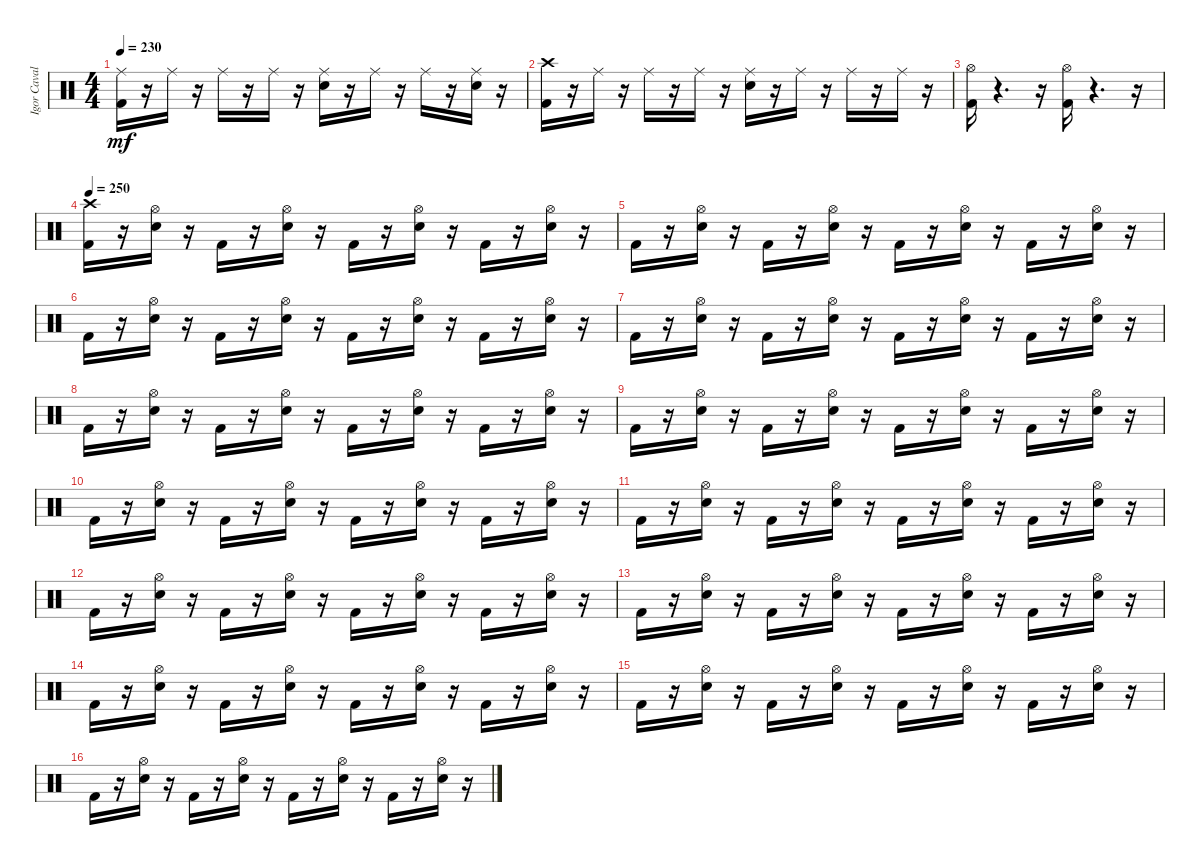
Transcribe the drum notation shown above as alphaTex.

\track ("Igor Cavalera" "Igor Caval") {instrument percussion}
\staff {score}
\articulation defaults
\ts (4 4)
\tempo 230
\clef neutral
\ks c
("Kick (hit) 2" "Ride (middle)").16{dy mf} r.16 "Ride (middle)".16 r.16 "Ride (middle)".16 r.16 "Ride (middle)".16 r.16 ("Snare (hit) 2" "Ride (middle)").16 r.16 "Ride (middle)".16 r.16 "Ride (middle)".16 r.16 ("Snare (hit) 2" "Ride (middle)").16 r.16 |
("Kick (hit) 2" "Crash high (hit)").16 r.16 "Ride (middle)".16 r.16 "Ride (middle)".16 r.16 "Ride (middle)".16 r.16 ("Ride (middle)" "Snare (hit) 2").16 r.16 "Ride (middle)".16 r.16 "Ride (middle)".16 r.16 "Ride (middle)".16 r.16 |
("Kick (hit) 2" "Hi-Hat (open)").16 r.4{d} r.16 ("Kick (hit) 2" "Hi-Hat (open)").16 r.4{d} r.16 |
\tempo 250
("Crash high (hit)" "Kick (hit) 2").16 r.16 ("Snare (hit) 2" "Hi-Hat (open)").16 r.16 "Kick (hit) 2".16 r.16 ("Snare (hit) 2" "Hi-Hat (open)").16 r.16 "Kick (hit) 2".16 r.16 ("Snare (hit) 2" "Hi-Hat (open)").16 r.16 "Kick (hit) 2".16 r.16 ("Snare (hit) 2" "Hi-Hat (open)").16 r.16 |
"Kick (hit) 2".16 r.16 ("Snare (hit) 2" "Hi-Hat (open)").16 r.16 "Kick (hit) 2".16 r.16 ("Snare (hit) 2" "Hi-Hat (open)").16 r.16 "Kick (hit) 2".16 r.16 ("Snare (hit) 2" "Hi-Hat (open)").16 r.16 "Kick (hit) 2".16 r.16 ("Snare (hit) 2" "Hi-Hat (open)").16 r.16 |
"Kick (hit) 2".16 r.16 ("Snare (hit) 2" "Hi-Hat (open)").16 r.16 "Kick (hit) 2".16 r.16 ("Snare (hit) 2" "Hi-Hat (open)").16 r.16 "Kick (hit) 2".16 r.16 ("Snare (hit) 2" "Hi-Hat (open)").16 r.16 "Kick (hit) 2".16 r.16 ("Snare (hit) 2" "Hi-Hat (open)").16 r.16 |
"Kick (hit) 2".16 r.16 ("Snare (hit) 2" "Hi-Hat (open)").16 r.16 "Kick (hit) 2".16 r.16 ("Snare (hit) 2" "Hi-Hat (open)").16 r.16 "Kick (hit) 2".16 r.16 ("Snare (hit) 2" "Hi-Hat (open)").16 r.16 "Kick (hit) 2".16 r.16 ("Snare (hit) 2" "Hi-Hat (open)").16 r.16 |
"Kick (hit) 2".16 r.16 ("Snare (hit) 2" "Hi-Hat (open)").16 r.16 "Kick (hit) 2".16 r.16 ("Snare (hit) 2" "Hi-Hat (open)").16 r.16 "Kick (hit) 2".16 r.16 ("Snare (hit) 2" "Hi-Hat (open)").16 r.16 "Kick (hit) 2".16 r.16 ("Snare (hit) 2" "Hi-Hat (open)").16 r.16 |
"Kick (hit) 2".16 r.16 ("Snare (hit) 2" "Hi-Hat (open)").16 r.16 "Kick (hit) 2".16 r.16 ("Snare (hit) 2" "Hi-Hat (open)").16 r.16 "Kick (hit) 2".16 r.16 ("Snare (hit) 2" "Hi-Hat (open)").16 r.16 "Kick (hit) 2".16 r.16 ("Snare (hit) 2" "Hi-Hat (open)").16 r.16 |
"Kick (hit) 2".16 r.16 ("Snare (hit) 2" "Hi-Hat (open)").16 r.16 "Kick (hit) 2".16 r.16 ("Snare (hit) 2" "Hi-Hat (open)").16 r.16 "Kick (hit) 2".16 r.16 ("Snare (hit) 2" "Hi-Hat (open)").16 r.16 "Kick (hit) 2".16 r.16 ("Snare (hit) 2" "Hi-Hat (open)").16 r.16 |
"Kick (hit) 2".16 r.16 ("Snare (hit) 2" "Hi-Hat (open)").16 r.16 "Kick (hit) 2".16 r.16 ("Snare (hit) 2" "Hi-Hat (open)").16 r.16 "Kick (hit) 2".16 r.16 ("Snare (hit) 2" "Hi-Hat (open)").16 r.16 "Kick (hit) 2".16 r.16 ("Snare (hit) 2" "Hi-Hat (open)").16 r.16 |
"Kick (hit) 2".16 r.16 ("Snare (hit) 2" "Hi-Hat (open)").16 r.16 "Kick (hit) 2".16 r.16 ("Snare (hit) 2" "Hi-Hat (open)").16 r.16 "Kick (hit) 2".16 r.16 ("Snare (hit) 2" "Hi-Hat (open)").16 r.16 "Kick (hit) 2".16 r.16 ("Snare (hit) 2" "Hi-Hat (open)").16 r.16 |
"Kick (hit) 2".16 r.16 ("Snare (hit) 2" "Hi-Hat (open)").16 r.16 "Kick (hit) 2".16 r.16 ("Snare (hit) 2" "Hi-Hat (open)").16 r.16 "Kick (hit) 2".16 r.16 ("Snare (hit) 2" "Hi-Hat (open)").16 r.16 "Kick (hit) 2".16 r.16 ("Snare (hit) 2" "Hi-Hat (open)").16 r.16 |
"Kick (hit) 2".16 r.16 ("Snare (hit) 2" "Hi-Hat (open)").16 r.16 "Kick (hit) 2".16 r.16 ("Snare (hit) 2" "Hi-Hat (open)").16 r.16 "Kick (hit) 2".16 r.16 ("Snare (hit) 2" "Hi-Hat (open)").16 r.16 "Kick (hit) 2".16 r.16 ("Snare (hit) 2" "Hi-Hat (open)").16 r.16 |
"Kick (hit) 2".16 r.16 ("Snare (hit) 2" "Hi-Hat (open)").16 r.16 "Kick (hit) 2".16 r.16 ("Snare (hit) 2" "Hi-Hat (open)").16 r.16 "Kick (hit) 2".16 r.16 ("Snare (hit) 2" "Hi-Hat (open)").16 r.16 "Kick (hit) 2".16 r.16 ("Snare (hit) 2" "Hi-Hat (open)").16 r.16 |
"Kick (hit) 2".16 r.16 ("Snare (hit) 2" "Hi-Hat (open)").16 r.16 "Kick (hit) 2".16 r.16 ("Snare (hit) 2" "Hi-Hat (open)").16 r.16 "Kick (hit) 2".16 r.16 ("Snare (hit) 2" "Hi-Hat (open)").16 r.16 "Kick (hit) 2".16 r.16 ("Snare (hit) 2" "Hi-Hat (open)").16 r.16
